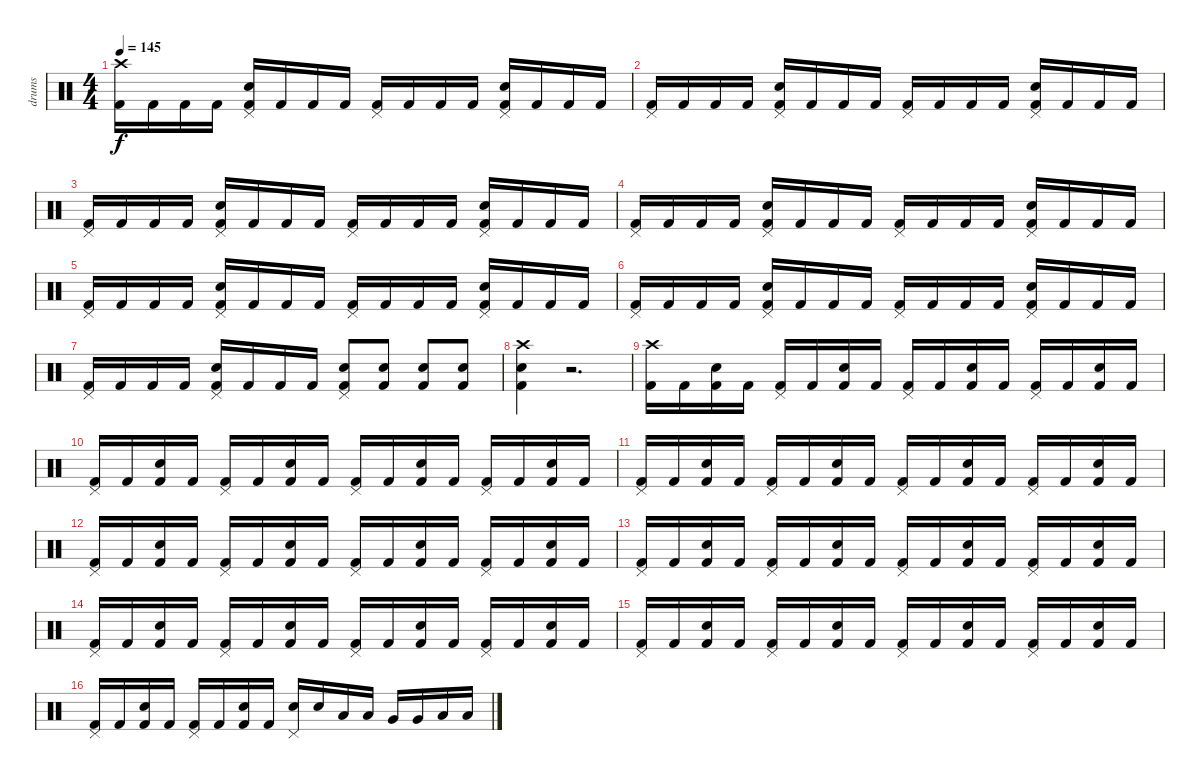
\track ("drums" "drums") {instrument percussion}
\staff {score}
\articulation defaults
\ts (4 4)
\tempo 145
\clef neutral
\ks c
("Crash high (hit)" "Kick (hit) 2").16{dy f} "Kick (hit) 2".16 "Kick (hit) 2".16 "Kick (hit) 2".16 ("Pedal Hi-Hat (hit)" "Electric Snare (hit)" "Kick (hit) 2").16 "Kick (hit) 2".16 "Kick (hit) 2".16 "Kick (hit) 2".16 ("Pedal Hi-Hat (hit)" "Kick (hit) 2").16 "Kick (hit) 2".16 "Kick (hit) 2".16 "Kick (hit) 2".16 ("Pedal Hi-Hat (hit)" "Electric Snare (hit)" "Kick (hit) 2").16 "Kick (hit) 2".16 "Kick (hit) 2".16 "Kick (hit) 2".16 |
("Pedal Hi-Hat (hit)" "Kick (hit) 2").16 "Kick (hit) 2".16 "Kick (hit) 2".16 "Kick (hit) 2".16 ("Pedal Hi-Hat (hit)" "Electric Snare (hit)" "Kick (hit) 2").16 "Kick (hit) 2".16 "Kick (hit) 2".16 "Kick (hit) 2".16 ("Pedal Hi-Hat (hit)" "Kick (hit) 2").16 "Kick (hit) 2".16 "Kick (hit) 2".16 "Kick (hit) 2".16 ("Pedal Hi-Hat (hit)" "Electric Snare (hit)" "Kick (hit) 2").16 "Kick (hit) 2".16 "Kick (hit) 2".16 "Kick (hit) 2".16 |
("Pedal Hi-Hat (hit)" "Kick (hit) 2").16 "Kick (hit) 2".16 "Kick (hit) 2".16 "Kick (hit) 2".16 ("Pedal Hi-Hat (hit)" "Electric Snare (hit)" "Kick (hit) 2").16 "Kick (hit) 2".16 "Kick (hit) 2".16 "Kick (hit) 2".16 ("Pedal Hi-Hat (hit)" "Kick (hit) 2").16 "Kick (hit) 2".16 "Kick (hit) 2".16 "Kick (hit) 2".16 ("Pedal Hi-Hat (hit)" "Electric Snare (hit)" "Kick (hit) 2").16 "Kick (hit) 2".16 "Kick (hit) 2".16 "Kick (hit) 2".16 |
("Pedal Hi-Hat (hit)" "Kick (hit) 2").16 "Kick (hit) 2".16 "Kick (hit) 2".16 "Kick (hit) 2".16 ("Pedal Hi-Hat (hit)" "Electric Snare (hit)" "Kick (hit) 2").16 "Kick (hit) 2".16 "Kick (hit) 2".16 "Kick (hit) 2".16 ("Pedal Hi-Hat (hit)" "Kick (hit) 2").16 "Kick (hit) 2".16 "Kick (hit) 2".16 "Kick (hit) 2".16 ("Pedal Hi-Hat (hit)" "Electric Snare (hit)" "Kick (hit) 2").16 "Kick (hit) 2".16 "Kick (hit) 2".16 "Kick (hit) 2".16 |
("Pedal Hi-Hat (hit)" "Kick (hit) 2").16 "Kick (hit) 2".16 "Kick (hit) 2".16 "Kick (hit) 2".16 ("Pedal Hi-Hat (hit)" "Electric Snare (hit)" "Kick (hit) 2").16 "Kick (hit) 2".16 "Kick (hit) 2".16 "Kick (hit) 2".16 ("Pedal Hi-Hat (hit)" "Kick (hit) 2").16 "Kick (hit) 2".16 "Kick (hit) 2".16 "Kick (hit) 2".16 ("Pedal Hi-Hat (hit)" "Electric Snare (hit)" "Kick (hit) 2").16 "Kick (hit) 2".16 "Kick (hit) 2".16 "Kick (hit) 2".16 |
("Pedal Hi-Hat (hit)" "Kick (hit) 2").16 "Kick (hit) 2".16 "Kick (hit) 2".16 "Kick (hit) 2".16 ("Pedal Hi-Hat (hit)" "Electric Snare (hit)" "Kick (hit) 2").16 "Kick (hit) 2".16 "Kick (hit) 2".16 "Kick (hit) 2".16 ("Pedal Hi-Hat (hit)" "Kick (hit) 2").16 "Kick (hit) 2".16 "Kick (hit) 2".16 "Kick (hit) 2".16 ("Pedal Hi-Hat (hit)" "Electric Snare (hit)" "Kick (hit) 2").16 "Kick (hit) 2".16 "Kick (hit) 2".16 "Kick (hit) 2".16 |
("Pedal Hi-Hat (hit)" "Kick (hit) 2").16 "Kick (hit) 2".16 "Kick (hit) 2".16 "Kick (hit) 2".16 ("Pedal Hi-Hat (hit)" "Electric Snare (hit)" "Kick (hit) 2").16 "Kick (hit) 2".16 "Kick (hit) 2".16 "Kick (hit) 2".16 ("Pedal Hi-Hat (hit)" "Electric Snare (hit)" "Kick (hit) 2").8 ("Electric Snare (hit)" "Kick (hit) 2").8 ("Electric Snare (hit)" "Kick (hit) 2").8 ("Electric Snare (hit)" "Kick (hit) 2").8 |
("Crash high (hit)" "Electric Snare (hit)" "Kick (hit) 2").4 r.2{d} |
("Crash high (hit)" "Kick (hit) 2").16 "Kick (hit) 2".16 ("Electric Snare (hit)" "Kick (hit) 2").16 "Kick (hit) 2".16 ("Pedal Hi-Hat (hit)" "Kick (hit) 2").16 "Kick (hit) 2".16 ("Electric Snare (hit)" "Kick (hit) 2").16 "Kick (hit) 2".16 ("Pedal Hi-Hat (hit)" "Kick (hit) 2").16 "Kick (hit) 2".16 ("Electric Snare (hit)" "Kick (hit) 2").16 "Kick (hit) 2".16 ("Pedal Hi-Hat (hit)" "Kick (hit) 2").16 "Kick (hit) 2".16 ("Electric Snare (hit)" "Kick (hit) 2").16 "Kick (hit) 2".16 |
("Pedal Hi-Hat (hit)" "Kick (hit) 2").16 "Kick (hit) 2".16 ("Electric Snare (hit)" "Kick (hit) 2").16 "Kick (hit) 2".16 ("Pedal Hi-Hat (hit)" "Kick (hit) 2").16 "Kick (hit) 2".16 ("Electric Snare (hit)" "Kick (hit) 2").16 "Kick (hit) 2".16 ("Pedal Hi-Hat (hit)" "Kick (hit) 2").16 "Kick (hit) 2".16 ("Electric Snare (hit)" "Kick (hit) 2").16 "Kick (hit) 2".16 ("Pedal Hi-Hat (hit)" "Kick (hit) 2").16 "Kick (hit) 2".16 ("Electric Snare (hit)" "Kick (hit) 2").16 "Kick (hit) 2".16 |
("Pedal Hi-Hat (hit)" "Kick (hit) 2").16 "Kick (hit) 2".16 ("Electric Snare (hit)" "Kick (hit) 2").16 "Kick (hit) 2".16 ("Pedal Hi-Hat (hit)" "Kick (hit) 2").16 "Kick (hit) 2".16 ("Electric Snare (hit)" "Kick (hit) 2").16 "Kick (hit) 2".16 ("Pedal Hi-Hat (hit)" "Kick (hit) 2").16 "Kick (hit) 2".16 ("Electric Snare (hit)" "Kick (hit) 2").16 "Kick (hit) 2".16 ("Pedal Hi-Hat (hit)" "Kick (hit) 2").16 "Kick (hit) 2".16 ("Electric Snare (hit)" "Kick (hit) 2").16 "Kick (hit) 2".16 |
("Pedal Hi-Hat (hit)" "Kick (hit) 2").16 "Kick (hit) 2".16 ("Electric Snare (hit)" "Kick (hit) 2").16 "Kick (hit) 2".16 ("Pedal Hi-Hat (hit)" "Kick (hit) 2").16 "Kick (hit) 2".16 ("Electric Snare (hit)" "Kick (hit) 2").16 "Kick (hit) 2".16 ("Pedal Hi-Hat (hit)" "Kick (hit) 2").16 "Kick (hit) 2".16 ("Electric Snare (hit)" "Kick (hit) 2").16 "Kick (hit) 2".16 ("Pedal Hi-Hat (hit)" "Kick (hit) 2").16 "Kick (hit) 2".16 ("Electric Snare (hit)" "Kick (hit) 2").16 "Kick (hit) 2".16 |
("Pedal Hi-Hat (hit)" "Kick (hit) 2").16 "Kick (hit) 2".16 ("Electric Snare (hit)" "Kick (hit) 2").16 "Kick (hit) 2".16 ("Pedal Hi-Hat (hit)" "Kick (hit) 2").16 "Kick (hit) 2".16 ("Electric Snare (hit)" "Kick (hit) 2").16 "Kick (hit) 2".16 ("Pedal Hi-Hat (hit)" "Kick (hit) 2").16 "Kick (hit) 2".16 ("Electric Snare (hit)" "Kick (hit) 2").16 "Kick (hit) 2".16 ("Pedal Hi-Hat (hit)" "Kick (hit) 2").16 "Kick (hit) 2".16 ("Electric Snare (hit)" "Kick (hit) 2").16 "Kick (hit) 2".16 |
("Pedal Hi-Hat (hit)" "Kick (hit) 2").16 "Kick (hit) 2".16 ("Electric Snare (hit)" "Kick (hit) 2").16 "Kick (hit) 2".16 ("Pedal Hi-Hat (hit)" "Kick (hit) 2").16 "Kick (hit) 2".16 ("Electric Snare (hit)" "Kick (hit) 2").16 "Kick (hit) 2".16 ("Pedal Hi-Hat (hit)" "Kick (hit) 2").16 "Kick (hit) 2".16 ("Electric Snare (hit)" "Kick (hit) 2").16 "Kick (hit) 2".16 ("Pedal Hi-Hat (hit)" "Kick (hit) 2").16 "Kick (hit) 2".16 ("Electric Snare (hit)" "Kick (hit) 2").16 "Kick (hit) 2".16 |
("Pedal Hi-Hat (hit)" "Kick (hit) 2").16 "Kick (hit) 2".16 ("Electric Snare (hit)" "Kick (hit) 2").16 "Kick (hit) 2".16 ("Pedal Hi-Hat (hit)" "Kick (hit) 2").16 "Kick (hit) 2".16 ("Electric Snare (hit)" "Kick (hit) 2").16 "Kick (hit) 2".16 ("Pedal Hi-Hat (hit)" "Kick (hit) 2").16 "Kick (hit) 2".16 ("Electric Snare (hit)" "Kick (hit) 2").16 "Kick (hit) 2".16 ("Pedal Hi-Hat (hit)" "Kick (hit) 2").16 "Kick (hit) 2".16 ("Electric Snare (hit)" "Kick (hit) 2").16 "Kick (hit) 2".16 |
("Pedal Hi-Hat (hit)" "Kick (hit) 2").16 "Kick (hit) 2".16 ("Electric Snare (hit)" "Kick (hit) 2").16 "Kick (hit) 2".16 ("Pedal Hi-Hat (hit)" "Kick (hit) 2").16 "Kick (hit) 2".16 ("Electric Snare (hit)" "Kick (hit) 2").16 "Kick (hit) 2".16 ("Pedal Hi-Hat (hit)" "Snare (hit) 2").16 "Snare (hit) 2".16 "Low Tom (hit)".16 "Low Tom (hit)".16 "Very Low Tom (hit)".16 "Very Low Tom (hit)".16 "Low Floor Tom (hit)".16 "Low Floor Tom (hit)".16
